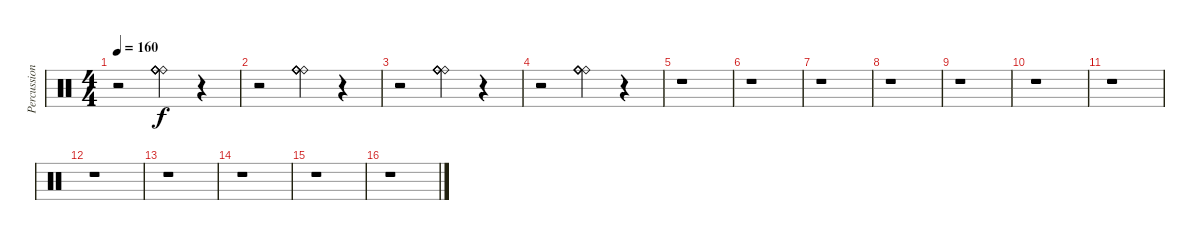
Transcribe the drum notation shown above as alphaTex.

\track ("Percussion" "Percussion") {instrument percussion}
\staff {score}
\articulation defaults
\ts (4 4)
\tempo 160
\clef neutral
\ks c
r.2{dy f} ("Ride (bell)" "Ride (bell)" "Ride (bell)" "Ride (bell)" "Ride (bell)" "Ride (bell)").4 r.4 |
r.2 ("Ride (bell)" "Ride (bell)" "Ride (bell)" "Ride (bell)" "Ride (bell)" "Ride (bell)").4 r.4 |
r.2 ("Ride (bell)" "Ride (bell)" "Ride (bell)" "Ride (bell)" "Ride (bell)" "Ride (bell)").4 r.4 |
r.2 ("Ride (bell)" "Ride (bell)" "Ride (bell)" "Ride (bell)" "Ride (bell)" "Ride (bell)").4 r.4 |
r.1 |
r.1 |
r.1 |
r.1 |
r.1 |
r.1 |
r.1 |
r.1 |
r.1 |
r.1 |
r.1 |
r.1
